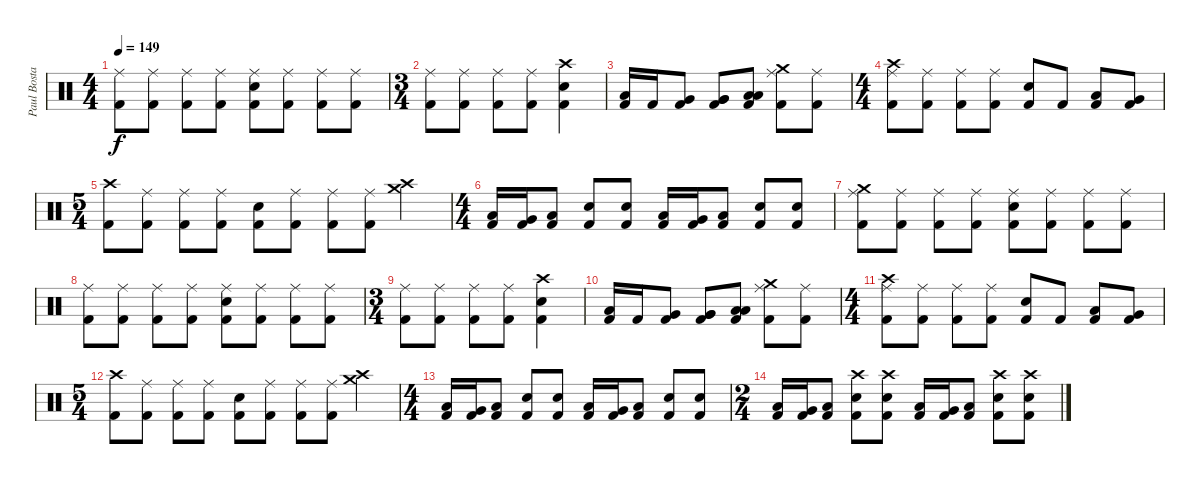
\track ("Paul Bostaph" "Paul Bosta") {instrument percussion}
\staff {score}
\articulation defaults
\ts (4 4)
\tempo 149
\clef neutral
\ks c
("Ride (middle)" "Kick (hit) 2").8{dy f} ("Ride (middle)" "Kick (hit) 2").8 ("Ride (middle)" "Kick (hit) 2").8 ("Ride (middle)" "Kick (hit) 2").8 ("Ride (middle)" "Snare (hit) 2" "Kick (hit) 2").8 ("Ride (middle)" "Kick (hit) 2").8 ("Ride (middle)" "Kick (hit) 2").8 ("Ride (middle)" "Kick (hit) 2").8 |
\ts (3 4)
("Ride (middle)" "Kick (hit) 2").8 ("Ride (middle)" "Kick (hit) 2").8 ("Ride (middle)" "Kick (hit) 2").8 ("Ride (middle)" "Kick (hit) 2").8 ("Crash high (hit)" "Snare (hit) 2" "Kick (hit) 2").4 |
("Low Tom (hit)" "Kick (hit) 2").16 "Kick (hit) 2".16 ("Very Low Tom (hit)" "Kick (hit) 2").8 ("Very Low Tom (hit)" "Very Low Tom (hit)" "Kick (hit) 2").8 ("Low Tom (hit)" "Low Tom (hit)" "Kick (hit) 2").8 ("Crash medium (hit)" "Ride (middle)" "Kick (hit) 2").8 ("Ride (middle)" "Kick (hit) 2").8 |
\ts (4 4)
("Crash high (hit)" "Ride (middle)" "Kick (hit) 2").8 ("Ride (middle)" "Kick (hit) 2").8 ("Ride (middle)" "Kick (hit) 2").8 ("Ride (middle)" "Kick (hit) 2").8 ("Snare (hit) 2" "Kick (hit) 2").8 "Kick (hit) 2".8 ("Low Tom (hit)" "Kick (hit) 2").8 ("Very Low Tom (hit)" "Kick (hit) 2").8 |
\ts (5 4)
("Crash high (hit)" "Kick (hit) 2").8 ("Ride (middle)" "Kick (hit) 2").8 ("Ride (middle)" "Kick (hit) 2").8 ("Ride (middle)" "Kick (hit) 2").8 ("Snare (hit) 2" "Kick (hit) 2").8 ("Ride (middle)" "Kick (hit) 2").8 ("Ride (middle)" "Kick (hit) 2").8 ("Ride (middle)" "Kick (hit) 2").8 ("Crash medium (hit)" "Crash high (hit)").4 |
\ts (4 4)
("Low Tom (hit)" "Kick (hit) 2").16 ("Very Low Tom (hit)" "Kick (hit) 2").16 ("Low Floor Tom (hit)" "Kick (hit) 2").8 ("Snare (hit) 2" "Kick (hit) 2").8 ("Snare (hit) 2" "Kick (hit) 2").8 ("Low Tom (hit)" "Kick (hit) 2").16 ("Very Low Tom (hit)" "Kick (hit) 2").16 ("Low Floor Tom (hit)" "Kick (hit) 2").8 ("Snare (hit) 2" "Kick (hit) 2").8 ("Snare (hit) 2" "Kick (hit) 2").8 |
("Crash medium (hit)" "Ride (middle)" "Kick (hit) 2").8 ("Ride (middle)" "Kick (hit) 2").8 ("Ride (middle)" "Kick (hit) 2").8 ("Ride (middle)" "Kick (hit) 2").8 ("Ride (middle)" "Snare (hit) 2" "Kick (hit) 2").8 ("Ride (middle)" "Kick (hit) 2").8 ("Ride (middle)" "Kick (hit) 2").8 ("Ride (middle)" "Kick (hit) 2").8 |
("Ride (middle)" "Kick (hit) 2").8 ("Ride (middle)" "Kick (hit) 2").8 ("Ride (middle)" "Kick (hit) 2").8 ("Ride (middle)" "Kick (hit) 2").8 ("Ride (middle)" "Snare (hit) 2" "Kick (hit) 2").8 ("Ride (middle)" "Kick (hit) 2").8 ("Ride (middle)" "Kick (hit) 2").8 ("Ride (middle)" "Kick (hit) 2").8 |
\ts (3 4)
("Ride (middle)" "Kick (hit) 2").8 ("Ride (middle)" "Kick (hit) 2").8 ("Ride (middle)" "Kick (hit) 2").8 ("Ride (middle)" "Kick (hit) 2").8 ("Crash high (hit)" "Snare (hit) 2" "Kick (hit) 2").4 |
("Low Tom (hit)" "Kick (hit) 2").16 "Kick (hit) 2".16 ("Very Low Tom (hit)" "Kick (hit) 2").8 ("Very Low Tom (hit)" "Very Low Tom (hit)" "Kick (hit) 2").8 ("Low Tom (hit)" "Low Tom (hit)" "Kick (hit) 2").8 ("Crash medium (hit)" "Ride (middle)" "Kick (hit) 2").8 ("Ride (middle)" "Kick (hit) 2").8 |
\ts (4 4)
("Crash high (hit)" "Ride (middle)" "Kick (hit) 2").8 ("Ride (middle)" "Kick (hit) 2").8 ("Ride (middle)" "Kick (hit) 2").8 ("Ride (middle)" "Kick (hit) 2").8 ("Snare (hit) 2" "Kick (hit) 2").8 "Kick (hit) 2".8 ("Low Tom (hit)" "Kick (hit) 2").8 ("Very Low Tom (hit)" "Kick (hit) 2").8 |
\ts (5 4)
("Crash high (hit)" "Kick (hit) 2").8 ("Ride (middle)" "Kick (hit) 2").8 ("Ride (middle)" "Kick (hit) 2").8 ("Ride (middle)" "Kick (hit) 2").8 ("Snare (hit) 2" "Kick (hit) 2").8 ("Ride (middle)" "Kick (hit) 2").8 ("Ride (middle)" "Kick (hit) 2").8 ("Ride (middle)" "Kick (hit) 2").8 ("Crash medium (hit)" "Crash high (hit)").4 |
\ts (4 4)
("Low Tom (hit)" "Kick (hit) 2").16 ("Very Low Tom (hit)" "Kick (hit) 2").16 ("Low Floor Tom (hit)" "Kick (hit) 2").8 ("Snare (hit) 2" "Kick (hit) 2").8 ("Snare (hit) 2" "Kick (hit) 2").8 ("Low Tom (hit)" "Kick (hit) 2").16 ("Very Low Tom (hit)" "Kick (hit) 2").16 ("Low Floor Tom (hit)" "Kick (hit) 2").8 ("Snare (hit) 2" "Kick (hit) 2").8 ("Snare (hit) 2" "Kick (hit) 2").8 |
\ts (2 4)
("Low Tom (hit)" "Kick (hit) 2").16 ("Very Low Tom (hit)" "Kick (hit) 2").16 ("Low Floor Tom (hit)" "Kick (hit) 2").8 ("Crash high (hit)" "Snare (hit) 2" "Kick (hit) 2").8 ("Crash high (hit)" "Snare (hit) 2" "Kick (hit) 2").8 ("Low Tom (hit)" "Kick (hit) 2").16 ("Very Low Tom (hit)" "Kick (hit) 2").16 ("Low Floor Tom (hit)" "Kick (hit) 2").8 ("Crash high (hit)" "Snare (hit) 2" "Kick (hit) 2").8 ("Crash high (hit)" "Snare (hit) 2" "Kick (hit) 2").8
